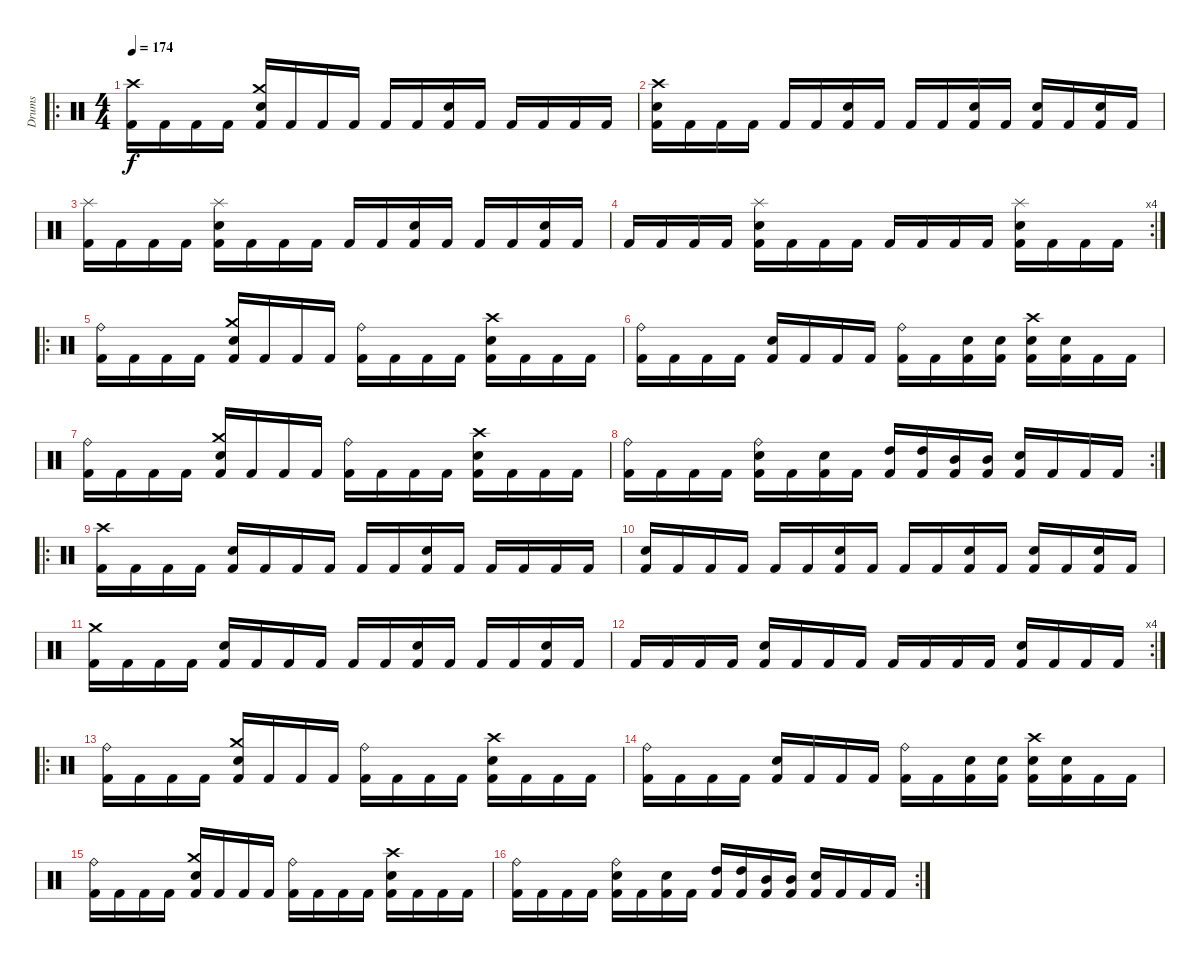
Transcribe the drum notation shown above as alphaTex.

\track ("Drums" "Drums") {instrument percussion}
\staff {score}
\articulation defaults
\ro
\ts (4 4)
\tempo 174
\clef neutral
\ks c
("Crash high (hit)" "Kick (hit) 2").16{dy f} "Kick (hit) 2".16 "Kick (hit) 2".16 "Kick (hit) 2".16 ("Crash medium (hit)" "Electric Snare (hit)" "Kick (hit) 2").16 "Kick (hit) 2".16 "Kick (hit) 2".16 "Kick (hit) 2".16 "Kick (hit) 2".16 "Kick (hit) 2".16 ("Electric Snare (hit)" "Kick (hit) 2").16 "Kick (hit) 2".16 "Kick (hit) 2".16 "Kick (hit) 2".16 "Kick (hit) 2".16 "Kick (hit) 2".16 |
("Crash high (hit)" "Electric Snare (hit)" "Kick (hit) 2").16 "Kick (hit) 2".16 "Kick (hit) 2".16 "Kick (hit) 2".16 "Kick (hit) 2".16 "Kick (hit) 2".16 ("Electric Snare (hit)" "Kick (hit) 2").16 "Kick (hit) 2".16 "Kick (hit) 2".16 "Kick (hit) 2".16 ("Electric Snare (hit)" "Kick (hit) 2").16 "Kick (hit) 2".16 ("Electric Snare (hit)" "Kick (hit) 2").16 "Kick (hit) 2".16 ("Electric Snare (hit)" "Kick (hit) 2").16 "Kick (hit) 2".16 |
("Splash (hit)" "Kick (hit) 2").16 "Kick (hit) 2".16 "Kick (hit) 2".16 "Kick (hit) 2".16 ("Splash (hit)" "Electric Snare (hit)" "Kick (hit) 2").16 "Kick (hit) 2".16 "Kick (hit) 2".16 "Kick (hit) 2".16 "Kick (hit) 2".16 "Kick (hit) 2".16 ("Electric Snare (hit)" "Kick (hit) 2").16 "Kick (hit) 2".16 "Kick (hit) 2".16 "Kick (hit) 2".16 ("Electric Snare (hit)" "Kick (hit) 2").16 "Kick (hit) 2".16 |
\rc 4 "Kick (hit) 2".16 "Kick (hit) 2".16 "Kick (hit) 2".16 "Kick (hit) 2".16
("Splash (hit)" "Electric Snare (hit)" "Kick (hit) 2").16 "Kick (hit) 2".16 "Kick (hit) 2".16 "Kick (hit) 2".16 "Kick (hit) 2".16 "Kick (hit) 2".16 "Kick (hit) 2".16 "Kick (hit) 2".16 ("Splash (hit)" "Electric Snare (hit)" "Kick (hit) 2").16 "Kick (hit) 2".16 "Kick (hit) 2".16 "Kick (hit) 2".16 |
\ro
("Ride (bell)" "Kick (hit) 2").16 "Kick (hit) 2".16 "Kick (hit) 2".16 "Kick (hit) 2".16 ("Crash medium (hit)" "Electric Snare (hit)" "Kick (hit) 2").16 "Kick (hit) 2".16 "Kick (hit) 2".16 "Kick (hit) 2".16 ("Ride (bell)" "Kick (hit) 2").16 "Kick (hit) 2".16 "Kick (hit) 2".16 "Kick (hit) 2".16 ("Crash high (hit)" "Electric Snare (hit)" "Kick (hit) 2").16 "Kick (hit) 2".16 "Kick (hit) 2".16 "Kick (hit) 2".16 |
("Ride (bell)" "Kick (hit) 2").16 "Kick (hit) 2".16 "Kick (hit) 2".16 "Kick (hit) 2".16 ("Electric Snare (hit)" "Kick (hit) 2").16 "Kick (hit) 2".16 "Kick (hit) 2".16 "Kick (hit) 2".16 ("Ride (bell)" "Kick (hit) 2").16 "Kick (hit) 2".16 ("Electric Snare (hit)" "Kick (hit) 2").16 ("Electric Snare (hit)" "Kick (hit) 2").16 ("Crash high (hit)" "Electric Snare (hit)" "Kick (hit) 2").16 ("Electric Snare (hit)" "Kick (hit) 2").16 "Kick (hit) 2".16 "Kick (hit) 2".16 |
("Ride (bell)" "Kick (hit) 2").16 "Kick (hit) 2".16 "Kick (hit) 2".16 "Kick (hit) 2".16 ("Crash medium (hit)" "Electric Snare (hit)" "Kick (hit) 2").16 "Kick (hit) 2".16 "Kick (hit) 2".16 "Kick (hit) 2".16 ("Ride (bell)" "Kick (hit) 2").16 "Kick (hit) 2".16 "Kick (hit) 2".16 "Kick (hit) 2".16 ("Crash high (hit)" "Electric Snare (hit)" "Kick (hit) 2").16 "Kick (hit) 2".16 "Kick (hit) 2".16 "Kick (hit) 2".16 |
\rc 2
("Ride (bell)" "Kick (hit) 2").16 "Kick (hit) 2".16 "Kick (hit) 2".16 "Kick (hit) 2".16 ("Electric Snare (hit)" "Ride (bell)" "Kick (hit) 2").16 "Kick (hit) 2".16 ("Electric Snare (hit)" "Kick (hit) 2").16 "Kick (hit) 2".16 ("High Tom (hit)" "Kick (hit) 2").16 ("High Tom (hit)" "Kick (hit) 2").16 ("Mid Tom (hit)" "Kick (hit) 2").16 ("Mid Tom (hit)" "Kick (hit) 2").16 ("Electric Snare (hit)" "Kick (hit) 2").16 "Kick (hit) 2".16 "Kick (hit) 2".16 "Kick (hit) 2".16 |
\ro
("Crash high (hit)" "Kick (hit) 2").16 "Kick (hit) 2".16 "Kick (hit) 2".16 "Kick (hit) 2".16 ("Electric Snare (hit)" "Kick (hit) 2").16 "Kick (hit) 2".16 "Kick (hit) 2".16 "Kick (hit) 2".16 "Kick (hit) 2".16 "Kick (hit) 2".16 ("Electric Snare (hit)" "Kick (hit) 2").16 "Kick (hit) 2".16 "Kick (hit) 2".16 "Kick (hit) 2".16 "Kick (hit) 2".16 "Kick (hit) 2".16 |
("Electric Snare (hit)" "Kick (hit) 2").16 "Kick (hit) 2".16 "Kick (hit) 2".16 "Kick (hit) 2".16 "Kick (hit) 2".16 "Kick (hit) 2".16 ("Electric Snare (hit)" "Kick (hit) 2").16 "Kick (hit) 2".16 "Kick (hit) 2".16 "Kick (hit) 2".16 ("Electric Snare (hit)" "Kick (hit) 2").16 "Kick (hit) 2".16 ("Electric Snare (hit)" "Kick (hit) 2").16 "Kick (hit) 2".16 ("Electric Snare (hit)" "Kick (hit) 2").16 "Kick (hit) 2".16 |
("Crash medium (hit)" "Kick (hit) 2").16 "Kick (hit) 2".16 "Kick (hit) 2".16 "Kick (hit) 2".16 ("Electric Snare (hit)" "Kick (hit) 2").16 "Kick (hit) 2".16 "Kick (hit) 2".16 "Kick (hit) 2".16 "Kick (hit) 2".16 "Kick (hit) 2".16 ("Electric Snare (hit)" "Kick (hit) 2").16 "Kick (hit) 2".16 "Kick (hit) 2".16 "Kick (hit) 2".16 ("Electric Snare (hit)" "Kick (hit) 2").16 "Kick (hit) 2".16 |
\rc 4 "Kick (hit) 2".16 "Kick (hit) 2".16 "Kick (hit) 2".16 "Kick (hit) 2".16
("Electric Snare (hit)" "Kick (hit) 2").16 "Kick (hit) 2".16 "Kick (hit) 2".16 "Kick (hit) 2".16 "Kick (hit) 2".16 "Kick (hit) 2".16 "Kick (hit) 2".16 "Kick (hit) 2".16 ("Electric Snare (hit)" "Kick (hit) 2").16 "Kick (hit) 2".16 "Kick (hit) 2".16 "Kick (hit) 2".16 |
\ro
("Ride (bell)" "Kick (hit) 2").16 "Kick (hit) 2".16 "Kick (hit) 2".16 "Kick (hit) 2".16 ("Crash medium (hit)" "Electric Snare (hit)" "Kick (hit) 2").16 "Kick (hit) 2".16 "Kick (hit) 2".16 "Kick (hit) 2".16 ("Ride (bell)" "Kick (hit) 2").16 "Kick (hit) 2".16 "Kick (hit) 2".16 "Kick (hit) 2".16 ("Crash high (hit)" "Electric Snare (hit)" "Kick (hit) 2").16 "Kick (hit) 2".16 "Kick (hit) 2".16 "Kick (hit) 2".16 |
("Ride (bell)" "Kick (hit) 2").16 "Kick (hit) 2".16 "Kick (hit) 2".16 "Kick (hit) 2".16 ("Electric Snare (hit)" "Kick (hit) 2").16 "Kick (hit) 2".16 "Kick (hit) 2".16 "Kick (hit) 2".16 ("Ride (bell)" "Kick (hit) 2").16 "Kick (hit) 2".16 ("Electric Snare (hit)" "Kick (hit) 2").16 ("Electric Snare (hit)" "Kick (hit) 2").16 ("Crash high (hit)" "Electric Snare (hit)" "Kick (hit) 2").16 ("Electric Snare (hit)" "Kick (hit) 2").16 "Kick (hit) 2".16 "Kick (hit) 2".16 |
("Ride (bell)" "Kick (hit) 2").16 "Kick (hit) 2".16 "Kick (hit) 2".16 "Kick (hit) 2".16 ("Crash medium (hit)" "Electric Snare (hit)" "Kick (hit) 2").16 "Kick (hit) 2".16 "Kick (hit) 2".16 "Kick (hit) 2".16 ("Ride (bell)" "Kick (hit) 2").16 "Kick (hit) 2".16 "Kick (hit) 2".16 "Kick (hit) 2".16 ("Crash high (hit)" "Electric Snare (hit)" "Kick (hit) 2").16 "Kick (hit) 2".16 "Kick (hit) 2".16 "Kick (hit) 2".16 |
\rc 2
("Ride (bell)" "Kick (hit) 2").16 "Kick (hit) 2".16 "Kick (hit) 2".16 "Kick (hit) 2".16 ("Electric Snare (hit)" "Ride (bell)" "Kick (hit) 2").16 "Kick (hit) 2".16 ("Electric Snare (hit)" "Kick (hit) 2").16 "Kick (hit) 2".16 ("High Tom (hit)" "Kick (hit) 2").16 ("High Tom (hit)" "Kick (hit) 2").16 ("Mid Tom (hit)" "Kick (hit) 2").16 ("Mid Tom (hit)" "Kick (hit) 2").16 ("Electric Snare (hit)" "Kick (hit) 2").16 "Kick (hit) 2".16 "Kick (hit) 2".16 "Kick (hit) 2".16
